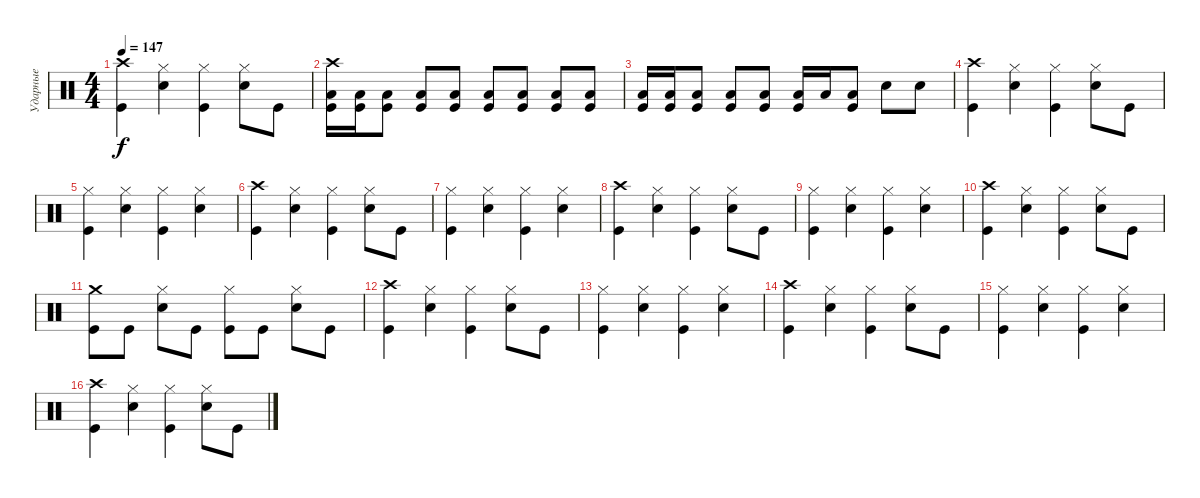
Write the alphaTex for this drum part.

\track ("Ударные" "Ударные") {instrument percussion}
\staff {score}
\articulation defaults
\ts (4 4)
\tempo 147
\clef neutral
\ks c
("Crash high (hit)" "Kick (hit)").4{dy f} ("Hi-Hat (closed)" "Electric Snare (hit)").4 ("Hi-Hat (closed)" "Kick (hit)").4 ("Hi-Hat (closed)" "Electric Snare (hit)").8 "Kick (hit)".8 |
("Crash high (hit)" "Low Tom (hit)" "Kick (hit)").16 ("Low Tom (hit)" "Kick (hit)").16 ("Low Tom (hit)" "Kick (hit)").8 ("Low Tom (hit)" "Kick (hit)").8 ("Low Tom (hit)" "Kick (hit)").8 ("Low Tom (hit)" "Kick (hit)").8 ("Low Tom (hit)" "Kick (hit)").8 ("Low Tom (hit)" "Kick (hit)").8 ("Low Tom (hit)" "Kick (hit)").8 |
("Low Tom (hit)" "Kick (hit)").16 ("Low Tom (hit)" "Kick (hit)").16 ("Low Tom (hit)" "Kick (hit)").8 ("Low Tom (hit)" "Kick (hit)").8 ("Low Tom (hit)" "Kick (hit)").8 ("Low Tom (hit)" "Kick (hit)").16 "Low Tom (hit)".16 ("Low Tom (hit)" "Kick (hit)").8 "Electric Snare (hit)".8 "Electric Snare (hit)".8 |
("Crash high (hit)" "Kick (hit)").4 ("Hi-Hat (closed)" "Electric Snare (hit)").4 ("Hi-Hat (closed)" "Kick (hit)").4 ("Hi-Hat (closed)" "Electric Snare (hit)").8 "Kick (hit)".8 |
("Hi-Hat (closed)" "Kick (hit)").4 ("Hi-Hat (closed)" "Electric Snare (hit)").4 ("Hi-Hat (closed)" "Kick (hit)").4 ("Hi-Hat (closed)" "Electric Snare (hit)").4 |
("Crash high (hit)" "Kick (hit)").4 ("Hi-Hat (closed)" "Electric Snare (hit)").4 ("Hi-Hat (closed)" "Kick (hit)").4 ("Hi-Hat (closed)" "Electric Snare (hit)").8 "Kick (hit)".8 |
("Hi-Hat (closed)" "Kick (hit)").4 ("Hi-Hat (closed)" "Electric Snare (hit)").4 ("Hi-Hat (closed)" "Kick (hit)").4 ("Hi-Hat (closed)" "Electric Snare (hit)").4 |
("Crash high (hit)" "Kick (hit)").4 ("Hi-Hat (closed)" "Electric Snare (hit)").4 ("Hi-Hat (closed)" "Kick (hit)").4 ("Hi-Hat (closed)" "Electric Snare (hit)").8 "Kick (hit)".8 |
("Hi-Hat (closed)" "Kick (hit)").4 ("Hi-Hat (closed)" "Electric Snare (hit)").4 ("Hi-Hat (closed)" "Kick (hit)").4 ("Hi-Hat (closed)" "Electric Snare (hit)").4 |
("Crash high (hit)" "Kick (hit)").4 ("Hi-Hat (closed)" "Electric Snare (hit)").4 ("Hi-Hat (closed)" "Kick (hit)").4 ("Hi-Hat (closed)" "Electric Snare (hit)").8 "Kick (hit)".8 |
("Crash medium (hit)" "Kick (hit)").8 "Kick (hit)".8 ("Hi-Hat (closed)" "Electric Snare (hit)").8 "Kick (hit)".8 ("Hi-Hat (closed)" "Kick (hit)").8 "Kick (hit)".8 ("Hi-Hat (closed)" "Electric Snare (hit)").8 "Kick (hit)".8 |
("Crash high (hit)" "Kick (hit)").4 ("Hi-Hat (closed)" "Electric Snare (hit)").4 ("Hi-Hat (closed)" "Kick (hit)").4 ("Hi-Hat (closed)" "Electric Snare (hit)").8 "Kick (hit)".8 |
("Hi-Hat (closed)" "Kick (hit)").4 ("Hi-Hat (closed)" "Electric Snare (hit)").4 ("Hi-Hat (closed)" "Kick (hit)").4 ("Hi-Hat (closed)" "Electric Snare (hit)").4 |
("Crash high (hit)" "Kick (hit)").4 ("Hi-Hat (closed)" "Electric Snare (hit)").4 ("Hi-Hat (closed)" "Kick (hit)").4 ("Hi-Hat (closed)" "Electric Snare (hit)").8 "Kick (hit)".8 |
("Hi-Hat (closed)" "Kick (hit)").4 ("Hi-Hat (closed)" "Electric Snare (hit)").4 ("Hi-Hat (closed)" "Kick (hit)").4 ("Hi-Hat (closed)" "Electric Snare (hit)").4 |
("Crash high (hit)" "Kick (hit)").4 ("Hi-Hat (closed)" "Electric Snare (hit)").4 ("Hi-Hat (closed)" "Kick (hit)").4 ("Hi-Hat (closed)" "Electric Snare (hit)").8 "Kick (hit)".8
